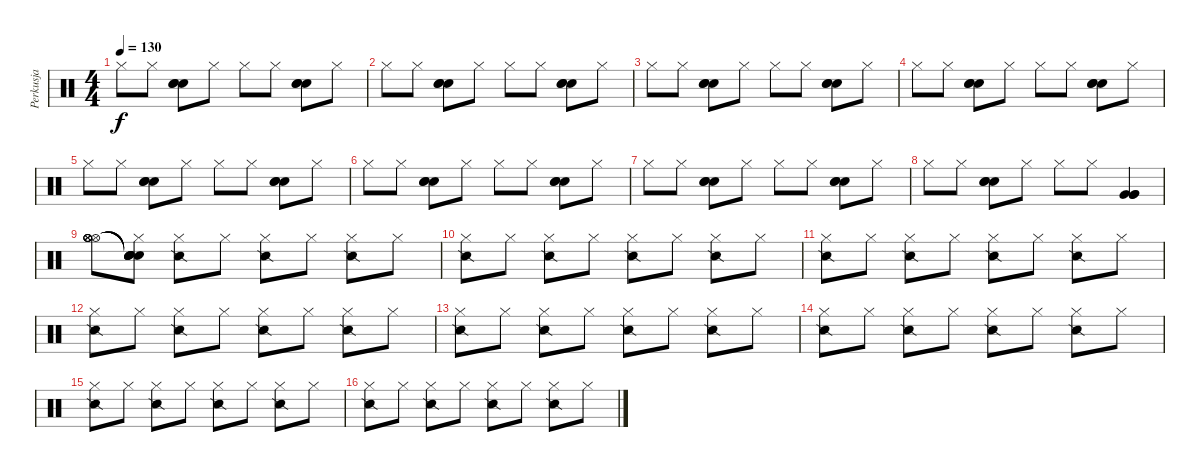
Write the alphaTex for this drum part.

\track ("Perkusja" "Perkusja") {instrument percussion}
\staff {score}
\articulation defaults
\ts (4 4)
\tempo 130
\clef neutral
\ks c "Hi-Hat (closed)".8{dy f} "Hi-Hat (closed)".8
("Electric Snare (hit)" "Electric Snare (hit)" "Electric Snare (hit)").8 "Hi-Hat (closed)".8 "Hi-Hat (closed)".8 "Hi-Hat (closed)".8 ("Electric Snare (hit)" "Electric Snare (hit)" "Electric Snare (hit)").8 "Hi-Hat (closed)".8 |
"Hi-Hat (closed)".8 "Hi-Hat (closed)".8 ("Electric Snare (hit)" "Electric Snare (hit)" "Electric Snare (hit)").8 "Hi-Hat (closed)".8 "Hi-Hat (closed)".8 "Hi-Hat (closed)".8 ("Electric Snare (hit)" "Electric Snare (hit)" "Electric Snare (hit)").8 "Hi-Hat (closed)".8 |
"Hi-Hat (closed)".8 "Hi-Hat (closed)".8 ("Electric Snare (hit)" "Electric Snare (hit)" "Electric Snare (hit)").8 "Hi-Hat (closed)".8 "Hi-Hat (closed)".8 "Hi-Hat (closed)".8 ("Electric Snare (hit)" "Electric Snare (hit)" "Electric Snare (hit)").8 "Hi-Hat (closed)".8 |
"Hi-Hat (closed)".8 "Hi-Hat (closed)".8 ("Electric Snare (hit)" "Electric Snare (hit)" "Electric Snare (hit)").8 "Hi-Hat (closed)".8 "Hi-Hat (closed)".8 "Hi-Hat (closed)".8 ("Electric Snare (hit)" "Electric Snare (hit)" "Electric Snare (hit)").8 "Hi-Hat (closed)".8 |
"Hi-Hat (closed)".8 "Hi-Hat (closed)".8 ("Electric Snare (hit)" "Electric Snare (hit)" "Electric Snare (hit)").8 "Hi-Hat (closed)".8 "Hi-Hat (closed)".8 "Hi-Hat (closed)".8 ("Electric Snare (hit)" "Electric Snare (hit)" "Electric Snare (hit)").8 "Hi-Hat (closed)".8 |
"Hi-Hat (closed)".8 "Hi-Hat (closed)".8 ("Electric Snare (hit)" "Electric Snare (hit)" "Electric Snare (hit)").8 "Hi-Hat (closed)".8 "Hi-Hat (closed)".8 "Hi-Hat (closed)".8 ("Electric Snare (hit)" "Electric Snare (hit)" "Electric Snare (hit)").8 "Hi-Hat (closed)".8 |
"Hi-Hat (closed)".8 "Hi-Hat (closed)".8 ("Electric Snare (hit)" "Electric Snare (hit)" "Electric Snare (hit)").8 "Hi-Hat (closed)".8 "Hi-Hat (closed)".8 "Hi-Hat (closed)".8 ("Electric Snare (hit)" "Electric Snare (hit)" "Electric Snare (hit)").8 "Hi-Hat (closed)".8 |
"Hi-Hat (closed)".8 "Hi-Hat (closed)".8 ("Electric Snare (hit)" "Electric Snare (hit)" "Electric Snare (hit)").8 "Hi-Hat (closed)".8 "Hi-Hat (closed)".8 "Hi-Hat (closed)".8 ("Very Low Tom (hit)" "Very Low Tom (hit)" "Very Low Tom (hit)").4 |
("Hi-Hat (open)" "Hi-Hat (open)" "Hi-Hat (open)" "Hi-Hat (open)" "Hi-Hat (open)").8 ("Hi-Hat (closed)" "Snare (hit)"{t} "Snare (hit)"{t} "Snare (hit)"{t} "Snare (hit)"{t} "Snare (hit)").8 ("Hi-Hat (closed)" "Snare (side stick) 2").8 "Hi-Hat (closed)".8 ("Hi-Hat (closed)" "Snare (side stick) 2").8 "Hi-Hat (closed)".8 ("Hi-Hat (closed)" "Snare (side stick) 2").8 "Hi-Hat (closed)".8 |
("Hi-Hat (closed)" "Snare (side stick) 2").8 "Hi-Hat (closed)".8 ("Hi-Hat (closed)" "Snare (side stick) 2").8 "Hi-Hat (closed)".8 ("Hi-Hat (closed)" "Snare (side stick) 2").8 "Hi-Hat (closed)".8 ("Hi-Hat (closed)" "Snare (side stick) 2").8 "Hi-Hat (closed)".8 |
("Hi-Hat (closed)" "Snare (side stick) 2").8 "Hi-Hat (closed)".8 ("Hi-Hat (closed)" "Snare (side stick) 2").8 "Hi-Hat (closed)".8 ("Hi-Hat (closed)" "Snare (side stick) 2").8 "Hi-Hat (closed)".8 ("Hi-Hat (closed)" "Snare (side stick) 2").8 "Hi-Hat (closed)".8 |
("Hi-Hat (closed)" "Snare (side stick) 2").8 "Hi-Hat (closed)".8 ("Hi-Hat (closed)" "Snare (side stick) 2").8 "Hi-Hat (closed)".8 ("Hi-Hat (closed)" "Snare (side stick) 2").8 "Hi-Hat (closed)".8 ("Hi-Hat (closed)" "Snare (side stick) 2").8 "Hi-Hat (closed)".8 |
("Hi-Hat (closed)" "Snare (side stick) 2").8 "Hi-Hat (closed)".8 ("Hi-Hat (closed)" "Snare (side stick) 2").8 "Hi-Hat (closed)".8 ("Hi-Hat (closed)" "Snare (side stick) 2").8 "Hi-Hat (closed)".8 ("Hi-Hat (closed)" "Snare (side stick) 2").8 "Hi-Hat (closed)".8 |
("Hi-Hat (closed)" "Snare (side stick) 2").8 "Hi-Hat (closed)".8 ("Hi-Hat (closed)" "Snare (side stick) 2").8 "Hi-Hat (closed)".8 ("Hi-Hat (closed)" "Snare (side stick) 2").8 "Hi-Hat (closed)".8 ("Hi-Hat (closed)" "Snare (side stick) 2").8 "Hi-Hat (closed)".8 |
("Hi-Hat (closed)" "Snare (side stick) 2").8 "Hi-Hat (closed)".8 ("Hi-Hat (closed)" "Snare (side stick) 2").8 "Hi-Hat (closed)".8 ("Hi-Hat (closed)" "Snare (side stick) 2").8 "Hi-Hat (closed)".8 ("Hi-Hat (closed)" "Snare (side stick) 2").8 "Hi-Hat (closed)".8 |
("Hi-Hat (closed)" "Snare (side stick) 2").8 "Hi-Hat (closed)".8 ("Hi-Hat (closed)" "Snare (side stick) 2").8 "Hi-Hat (closed)".8 ("Hi-Hat (closed)" "Snare (side stick) 2").8 "Hi-Hat (closed)".8 ("Hi-Hat (closed)" "Snare (side stick) 2").8 "Hi-Hat (closed)".8
